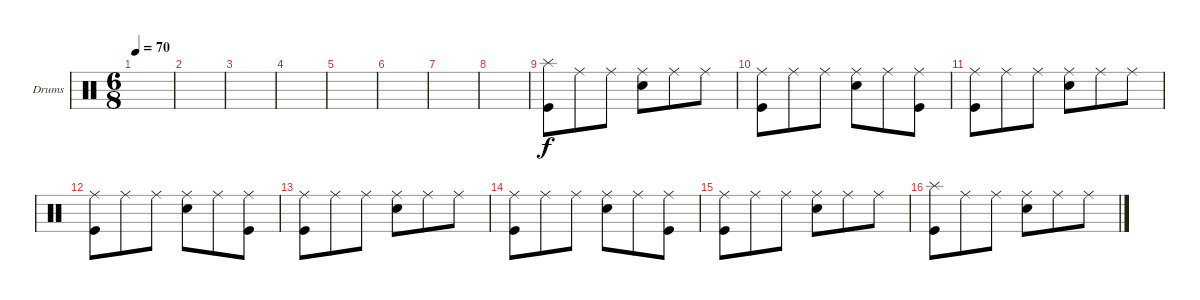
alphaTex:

\defaultSystemsLayout 4
\bracketExtendMode groupsimilarinstruments
\firstSystemTrackNameOrientation horizontal
\otherSystemsTrackNameOrientation horizontal
\track ("Drumkit" "Drums") {instrument percussion}
\staff {score}
\articulation defaults
\ts (6 8)
\tempo 70
\clef neutral
\scale
0.333333
\ks c
|
\scale
0.333333 |
\scale
0.333333 |
\scale
0.333333 |
\scale
0.333333 |
\scale
0.333333 |
\scale
0.333333 |
\scale
0.333333 |
\scale
0.333333 ("Splash (hit)" "Kick (hit)").8 "Ride (middle)".8 "Ride (middle)".8 ("Ride (middle)" "Snare (hit) 2").8 "Ride (middle)".8 "Ride (middle)".8 |
\scale
0.333333 ("Ride (middle)" "Kick (hit)").8 "Ride (middle)".8 "Ride (middle)".8 ("Ride (middle)" "Snare (hit) 2").8 "Ride (middle)".8 ("Ride (middle)" "Kick (hit)").8 |
\scale
0.333333 ("Ride (middle)" "Kick (hit)").8 "Ride (middle)".8 "Ride (middle)".8 ("Ride (middle)" "Snare (hit) 2").8 "Ride (middle)".8 "Ride (middle)".8 |
\scale
0.333333 ("Ride (middle)" "Kick (hit)").8 "Ride (middle)".8 "Ride (middle)".8 ("Ride (middle)" "Snare (hit) 2").8 "Ride (middle)".8 ("Ride (middle)" "Kick (hit)").8 |
\scale
0.333333 ("Ride (middle)" "Kick (hit)").8 "Ride (middle)".8 "Ride (middle)".8 ("Ride (middle)" "Snare (hit) 2").8 "Ride (middle)".8 "Ride (middle)".8 |
\scale
0.333333 ("Ride (middle)" "Kick (hit)").8 "Ride (middle)".8 "Ride (middle)".8 ("Ride (middle)" "Snare (hit) 2").8 "Ride (middle)".8 ("Ride (middle)" "Kick (hit)").8 |
\scale
0.333333 ("Ride (middle)" "Kick (hit)").8 "Ride (middle)".8 "Ride (middle)".8 ("Ride (middle)" "Snare (hit) 2").8 "Ride (middle)".8 "Ride (middle)".8 |
\scale
0.333333 ("Splash (hit)" "Kick (hit)").8 "Ride (middle)".8 "Ride (middle)".8 ("Ride (middle)" "Snare (hit) 2").8 "Ride (middle)".8 "Ride (middle)".8
